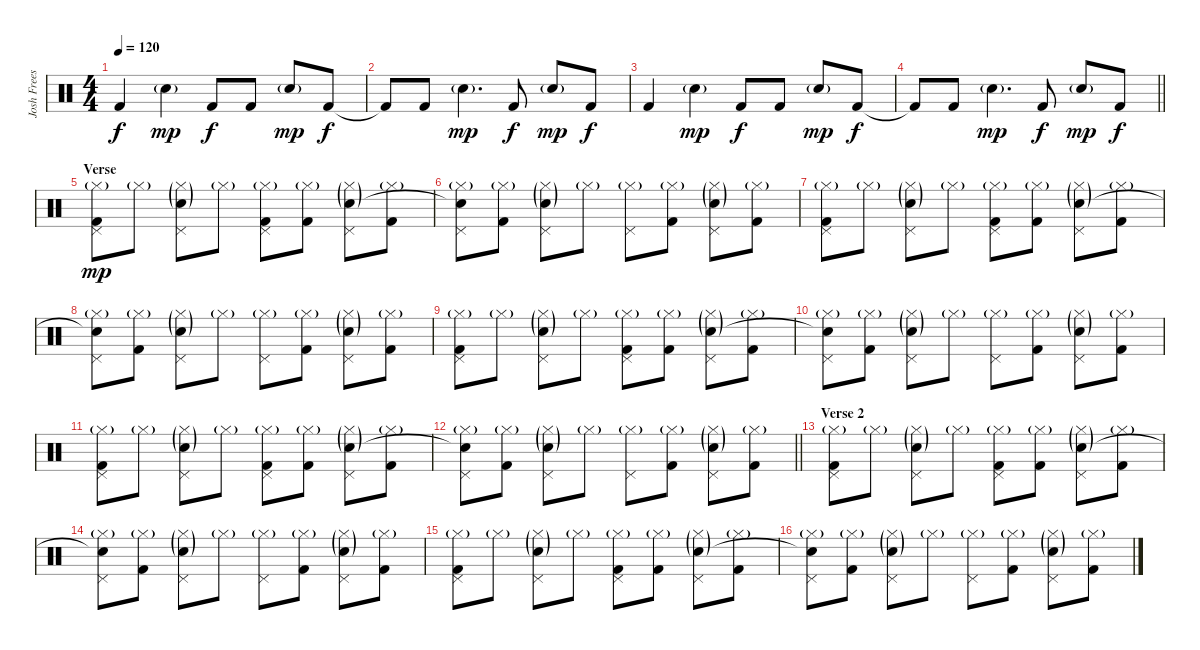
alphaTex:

\track ("Josh Freese" "Josh Frees") {instrument percussion}
\staff {score}
\articulation defaults
\ts (4 4)
\section ("" "")
\tempo 120
\clef neutral
\ks c "Kick (hit) 2".4{dy f} "Snare (hit) 2"{g}.4{dy mp} "Kick (hit) 2".8{dy f} "Kick (hit) 2".8 "Snare (hit) 2"{g}.8{dy mp} "Kick (hit) 2".8{dy f}
|
"Kick (hit) 2"{t}.8 "Kick (hit) 2".8 "Snare (hit) 2"{g}.4{d dy mp} "Kick (hit) 2".8{dy f} "Snare (hit) 2"{g}.8{dy mp} "Kick (hit) 2".8{dy f} |
"Kick (hit) 2".4 "Snare (hit) 2"{g}.4{dy mp} "Kick (hit) 2".8{dy f} "Kick (hit) 2".8 "Snare (hit) 2"{g}.8{dy mp} "Kick (hit) 2".8{dy f} |
\barLineRight lightlight "Kick (hit) 2"{t}.8 "Kick (hit) 2".8 "Snare (hit) 2"{g}.4{d dy mp} "Kick (hit) 2".8{dy f} "Snare (hit) 2"{g}.8{dy mp} "Kick (hit) 2".8{dy f}
|
\section ("" "Verse")
("Pedal Hi-Hat (hit)" "Hi-Hat (closed)"{g} "Kick (hit) 2").8{dy mp} "Hi-Hat (closed)"{g}.8 ("Pedal Hi-Hat (hit)" "Hi-Hat (closed)"{g} "Snare (hit) 2"{g}).8 "Hi-Hat (closed)"{g}.8 ("Pedal Hi-Hat (hit)" "Hi-Hat (closed)"{g} "Kick (hit) 2").8 ("Hi-Hat (closed)"{g} "Kick (hit) 2").8 ("Pedal Hi-Hat (hit)" "Hi-Hat (closed)"{g} "Snare (hit) 2"{g}).8 ("Hi-Hat (closed)"{g} "Kick (hit) 2").8 |
("Pedal Hi-Hat (hit)" "Hi-Hat (closed)"{g} "Snare (hit)"{t}).8 ("Hi-Hat (closed)"{g} "Kick (hit) 2").8 ("Pedal Hi-Hat (hit)" "Hi-Hat (closed)"{g} "Snare (hit) 2"{g}).8 "Hi-Hat (closed)"{g}.8 ("Pedal Hi-Hat (hit)" "Hi-Hat (closed)"{g}).8 ("Hi-Hat (closed)"{g} "Kick (hit) 2").8 ("Pedal Hi-Hat (hit)" "Hi-Hat (closed)"{g} "Snare (hit) 2"{g}).8 ("Hi-Hat (closed)"{g} "Kick (hit) 2").8 |
("Pedal Hi-Hat (hit)" "Hi-Hat (closed)"{g} "Kick (hit) 2").8 "Hi-Hat (closed)"{g}.8 ("Pedal Hi-Hat (hit)" "Hi-Hat (closed)"{g} "Snare (hit) 2"{g}).8 "Hi-Hat (closed)"{g}.8 ("Pedal Hi-Hat (hit)" "Hi-Hat (closed)"{g} "Kick (hit) 2").8 ("Hi-Hat (closed)"{g} "Kick (hit) 2").8 ("Pedal Hi-Hat (hit)" "Hi-Hat (closed)"{g} "Snare (hit) 2"{g}).8 ("Hi-Hat (closed)"{g} "Kick (hit) 2").8 |
("Pedal Hi-Hat (hit)" "Hi-Hat (closed)"{g} "Snare (hit)"{t}).8 ("Hi-Hat (closed)"{g} "Kick (hit) 2").8 ("Pedal Hi-Hat (hit)" "Hi-Hat (closed)"{g} "Snare (hit) 2"{g}).8 "Hi-Hat (closed)"{g}.8 ("Pedal Hi-Hat (hit)" "Hi-Hat (closed)"{g}).8 ("Hi-Hat (closed)"{g} "Kick (hit) 2").8 ("Pedal Hi-Hat (hit)" "Hi-Hat (closed)"{g} "Snare (hit) 2"{g}).8 ("Hi-Hat (closed)"{g} "Kick (hit) 2").8 |
("Pedal Hi-Hat (hit)" "Hi-Hat (closed)"{g} "Kick (hit) 2").8 "Hi-Hat (closed)"{g}.8 ("Pedal Hi-Hat (hit)" "Hi-Hat (closed)"{g} "Snare (hit) 2"{g}).8 "Hi-Hat (closed)"{g}.8 ("Pedal Hi-Hat (hit)" "Hi-Hat (closed)"{g} "Kick (hit) 2").8 ("Hi-Hat (closed)"{g} "Kick (hit) 2").8 ("Pedal Hi-Hat (hit)" "Hi-Hat (closed)"{g} "Snare (hit) 2"{g}).8 ("Hi-Hat (closed)"{g} "Kick (hit) 2").8 |
("Pedal Hi-Hat (hit)" "Hi-Hat (closed)"{g} "Snare (hit)"{t}).8 ("Hi-Hat (closed)"{g} "Kick (hit) 2").8 ("Pedal Hi-Hat (hit)" "Hi-Hat (closed)"{g} "Snare (hit) 2"{g}).8 "Hi-Hat (closed)"{g}.8 ("Pedal Hi-Hat (hit)" "Hi-Hat (closed)"{g}).8 ("Hi-Hat (closed)"{g} "Kick (hit) 2").8 ("Pedal Hi-Hat (hit)" "Hi-Hat (closed)"{g} "Snare (hit) 2"{g}).8 ("Hi-Hat (closed)"{g} "Kick (hit) 2").8 |
("Pedal Hi-Hat (hit)" "Hi-Hat (closed)"{g} "Kick (hit) 2").8 "Hi-Hat (closed)"{g}.8 ("Pedal Hi-Hat (hit)" "Hi-Hat (closed)"{g} "Snare (hit) 2"{g}).8 "Hi-Hat (closed)"{g}.8 ("Pedal Hi-Hat (hit)" "Hi-Hat (closed)"{g} "Kick (hit) 2").8 ("Hi-Hat (closed)"{g} "Kick (hit) 2").8 ("Pedal Hi-Hat (hit)" "Hi-Hat (closed)"{g} "Snare (hit) 2"{g}).8 ("Hi-Hat (closed)"{g} "Kick (hit) 2").8 |
\barLineRight lightlight
("Pedal Hi-Hat (hit)" "Hi-Hat (closed)"{g} "Snare (hit)"{t}).8 ("Hi-Hat (closed)"{g} "Kick (hit) 2").8 ("Pedal Hi-Hat (hit)" "Hi-Hat (closed)"{g} "Snare (hit) 2"{g}).8 "Hi-Hat (closed)"{g}.8 ("Pedal Hi-Hat (hit)" "Hi-Hat (closed)"{g}).8 ("Hi-Hat (closed)"{g} "Kick (hit) 2").8 ("Pedal Hi-Hat (hit)" "Hi-Hat (closed)"{g} "Snare (hit) 2"{g}).8 ("Hi-Hat (closed)"{g} "Kick (hit) 2").8 |
\section ("" "Verse 2")
("Pedal Hi-Hat (hit)" "Hi-Hat (closed)"{g} "Kick (hit) 2").8 "Hi-Hat (closed)"{g}.8 ("Pedal Hi-Hat (hit)" "Hi-Hat (closed)"{g} "Snare (hit) 2"{g}).8 "Hi-Hat (closed)"{g}.8 ("Pedal Hi-Hat (hit)" "Hi-Hat (closed)"{g} "Kick (hit) 2").8 ("Hi-Hat (closed)"{g} "Kick (hit) 2").8 ("Pedal Hi-Hat (hit)" "Hi-Hat (closed)"{g} "Snare (hit) 2"{g}).8 ("Hi-Hat (closed)"{g} "Kick (hit) 2").8 |
("Pedal Hi-Hat (hit)" "Hi-Hat (closed)"{g} "Snare (hit)"{t}).8 ("Hi-Hat (closed)"{g} "Kick (hit) 2").8 ("Pedal Hi-Hat (hit)" "Hi-Hat (closed)"{g} "Snare (hit) 2"{g}).8 "Hi-Hat (closed)"{g}.8 ("Pedal Hi-Hat (hit)" "Hi-Hat (closed)"{g}).8 ("Hi-Hat (closed)"{g} "Kick (hit) 2").8 ("Pedal Hi-Hat (hit)" "Hi-Hat (closed)"{g} "Snare (hit) 2"{g}).8 ("Hi-Hat (closed)"{g} "Kick (hit) 2").8 |
("Pedal Hi-Hat (hit)" "Hi-Hat (closed)"{g} "Kick (hit) 2").8 "Hi-Hat (closed)"{g}.8 ("Pedal Hi-Hat (hit)" "Hi-Hat (closed)"{g} "Snare (hit) 2"{g}).8 "Hi-Hat (closed)"{g}.8 ("Pedal Hi-Hat (hit)" "Hi-Hat (closed)"{g} "Kick (hit) 2").8 ("Hi-Hat (closed)"{g} "Kick (hit) 2").8 ("Pedal Hi-Hat (hit)" "Hi-Hat (closed)"{g} "Snare (hit) 2"{g}).8 ("Hi-Hat (closed)"{g} "Kick (hit) 2").8 |
("Pedal Hi-Hat (hit)" "Hi-Hat (closed)"{g} "Snare (hit)"{t}).8 ("Hi-Hat (closed)"{g} "Kick (hit) 2").8 ("Pedal Hi-Hat (hit)" "Hi-Hat (closed)"{g} "Snare (hit) 2"{g}).8 "Hi-Hat (closed)"{g}.8 ("Pedal Hi-Hat (hit)" "Hi-Hat (closed)"{g}).8 ("Hi-Hat (closed)"{g} "Kick (hit) 2").8 ("Pedal Hi-Hat (hit)" "Hi-Hat (closed)"{g} "Snare (hit) 2"{g}).8 ("Hi-Hat (closed)"{g} "Kick (hit) 2").8
